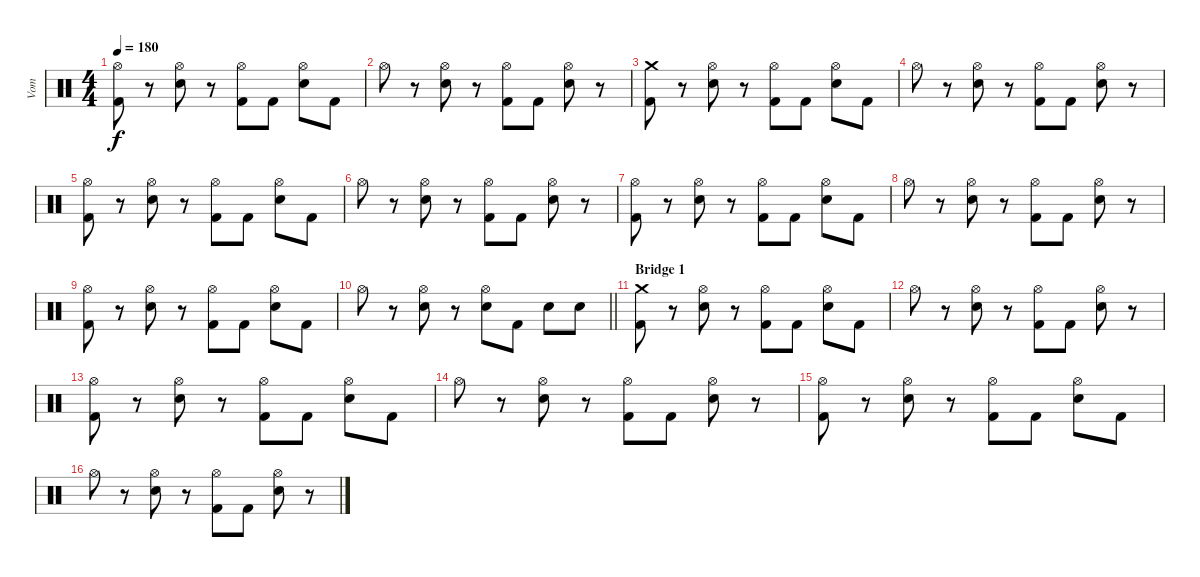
\track ("Vom" "Vom") {instrument percussion}
\staff {score}
\articulation defaults
\ts (4 4)
\tempo 180
\clef neutral
\ks c
("Hi-Hat (open)" "Kick (hit) 2").8{dy f} r.8 ("Hi-Hat (open)" "Snare (hit) 2").8 r.8 ("Hi-Hat (open)" "Kick (hit) 2").8 "Kick (hit) 2".8 ("Hi-Hat (open)" "Snare (hit) 2").8 "Kick (hit) 2".8 |
"Hi-Hat (open)".8 r.8 ("Hi-Hat (open)" "Snare (hit) 2").8 r.8 ("Hi-Hat (open)" "Kick (hit) 2").8 "Kick (hit) 2".8 ("Hi-Hat (open)" "Snare (hit) 2").8 r.8 |
("Crash medium (hit)" "Kick (hit) 2").8 r.8 ("Hi-Hat (open)" "Snare (hit) 2").8 r.8 ("Hi-Hat (open)" "Kick (hit) 2").8 "Kick (hit) 2".8 ("Hi-Hat (open)" "Snare (hit) 2").8 "Kick (hit) 2".8 |
"Hi-Hat (open)".8 r.8 ("Hi-Hat (open)" "Snare (hit) 2").8 r.8 ("Hi-Hat (open)" "Kick (hit) 2").8 "Kick (hit) 2".8 ("Hi-Hat (open)" "Snare (hit) 2").8 r.8 |
("Hi-Hat (open)" "Kick (hit) 2").8 r.8 ("Hi-Hat (open)" "Snare (hit) 2").8 r.8 ("Hi-Hat (open)" "Kick (hit) 2").8 "Kick (hit) 2".8 ("Hi-Hat (open)" "Snare (hit) 2").8 "Kick (hit) 2".8 |
"Hi-Hat (open)".8 r.8 ("Hi-Hat (open)" "Snare (hit) 2").8 r.8 ("Hi-Hat (open)" "Kick (hit) 2").8 "Kick (hit) 2".8 ("Hi-Hat (open)" "Snare (hit) 2").8 r.8 |
("Hi-Hat (open)" "Kick (hit) 2").8 r.8 ("Hi-Hat (open)" "Snare (hit) 2").8 r.8 ("Hi-Hat (open)" "Kick (hit) 2").8 "Kick (hit) 2".8 ("Hi-Hat (open)" "Snare (hit) 2").8 "Kick (hit) 2".8 |
"Hi-Hat (open)".8 r.8 ("Hi-Hat (open)" "Snare (hit) 2").8 r.8 ("Hi-Hat (open)" "Kick (hit) 2").8 "Kick (hit) 2".8 ("Hi-Hat (open)" "Snare (hit) 2").8 r.8 |
("Hi-Hat (open)" "Kick (hit) 2").8 r.8 ("Hi-Hat (open)" "Snare (hit) 2").8 r.8 ("Hi-Hat (open)" "Kick (hit) 2").8 "Kick (hit) 2".8 ("Hi-Hat (open)" "Snare (hit) 2").8 "Kick (hit) 2".8 |
\barLineRight lightlight "Hi-Hat (open)".8
r.8 ("Hi-Hat (open)" "Snare (hit) 2").8 r.8 ("Hi-Hat (open)" "Snare (hit) 2").8 "Kick (hit) 2".8 "Snare (hit) 2".8 "Snare (hit) 2".8 |
\section ("" "Bridge 1")
("Crash medium (hit)" "Kick (hit) 2").8 r.8 ("Hi-Hat (open)" "Snare (hit) 2").8 r.8 ("Hi-Hat (open)" "Kick (hit) 2").8 "Kick (hit) 2".8 ("Hi-Hat (open)" "Snare (hit) 2").8 "Kick (hit) 2".8 |
"Hi-Hat (open)".8 r.8 ("Hi-Hat (open)" "Snare (hit) 2").8 r.8 ("Hi-Hat (open)" "Kick (hit) 2").8 "Kick (hit) 2".8 ("Hi-Hat (open)" "Snare (hit) 2").8 r.8 |
("Hi-Hat (open)" "Kick (hit) 2").8 r.8 ("Hi-Hat (open)" "Snare (hit) 2").8 r.8 ("Hi-Hat (open)" "Kick (hit) 2").8 "Kick (hit) 2".8 ("Hi-Hat (open)" "Snare (hit) 2").8 "Kick (hit) 2".8 |
"Hi-Hat (open)".8 r.8 ("Hi-Hat (open)" "Snare (hit) 2").8 r.8 ("Hi-Hat (open)" "Kick (hit) 2").8 "Kick (hit) 2".8 ("Hi-Hat (open)" "Snare (hit) 2").8 r.8 |
("Hi-Hat (open)" "Kick (hit) 2").8 r.8 ("Hi-Hat (open)" "Snare (hit) 2").8 r.8 ("Hi-Hat (open)" "Kick (hit) 2").8 "Kick (hit) 2".8 ("Hi-Hat (open)" "Snare (hit) 2").8 "Kick (hit) 2".8 |
"Hi-Hat (open)".8 r.8 ("Hi-Hat (open)" "Snare (hit) 2").8 r.8 ("Hi-Hat (open)" "Kick (hit) 2").8 "Kick (hit) 2".8 ("Hi-Hat (open)" "Snare (hit) 2").8 r.8
